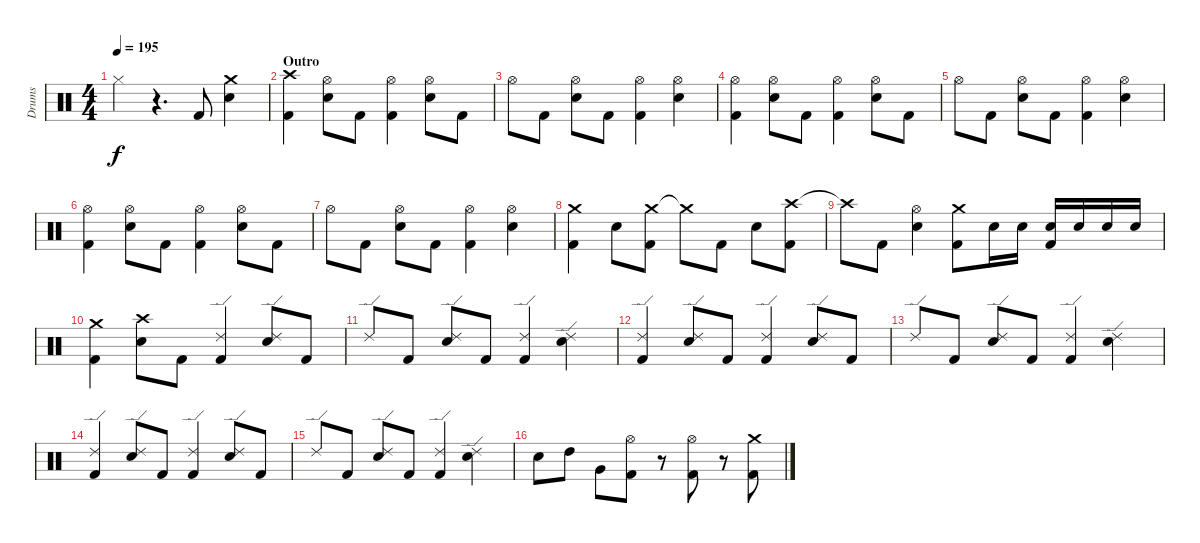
\track ("Drums" "Drums") {instrument percussion}
\staff {score}
\articulation defaults
\ts (4 4)
\tempo 195
\clef neutral
\ks c "Hi-Hat (closed)".4{dy f}
r.4{d} "Kick (hit) 2".8 ("Crash medium (hit)" "Snare (hit) 2").4 |
\section ("" "Outro")
("Crash high (hit)" "Kick (hit) 2").4 ("Hi-Hat (open)" "Snare (hit) 2").8 "Kick (hit) 2".8 ("Hi-Hat (open)" "Kick (hit) 2").4 ("Hi-Hat (open)" "Snare (hit) 2").8 "Kick (hit) 2".8 |
"Hi-Hat (open)".8 "Kick (hit) 2".8 ("Hi-Hat (open)" "Snare (hit) 2").8 "Kick (hit) 2".8 ("Hi-Hat (open)" "Kick (hit) 2").4 ("Hi-Hat (open)" "Snare (hit) 2").4 |
("Hi-Hat (open)" "Kick (hit) 2").4 ("Hi-Hat (open)" "Snare (hit) 2").8 "Kick (hit) 2".8 ("Hi-Hat (open)" "Kick (hit) 2").4 ("Hi-Hat (open)" "Snare (hit) 2").8 "Kick (hit) 2".8 |
"Hi-Hat (open)".8 "Kick (hit) 2".8 ("Hi-Hat (open)" "Snare (hit) 2").8 "Kick (hit) 2".8 ("Hi-Hat (open)" "Kick (hit) 2").4 ("Hi-Hat (open)" "Snare (hit) 2").4 |
("Hi-Hat (open)" "Kick (hit) 2").4 ("Hi-Hat (open)" "Snare (hit) 2").8 "Kick (hit) 2".8 ("Hi-Hat (open)" "Kick (hit) 2").4 ("Hi-Hat (open)" "Snare (hit) 2").8 "Kick (hit) 2".8 |
"Hi-Hat (open)".8 "Kick (hit) 2".8 ("Hi-Hat (open)" "Snare (hit) 2").8 "Kick (hit) 2".8 ("Hi-Hat (open)" "Kick (hit) 2").4 ("Hi-Hat (open)" "Snare (hit) 2").4 |
("Crash medium (hit)" "Kick (hit) 2").4 "Snare (hit) 2".8 ("Crash medium (hit)" "Kick (hit) 2").8 "Crash medium (hit)"{t}.8 "Kick (hit) 2".8 "Snare (hit) 2".8 ("Crash high (hit)" "Kick (hit) 2").8 |
"Crash high (hit)"{t}.8 "Kick (hit) 2".8 ("Hi-Hat (open)" "Snare (hit) 2").4 ("Crash medium (hit)" "Kick (hit) 2").8 "Snare (hit) 2".16 "Snare (hit) 2".16 ("Snare (hit) 2" "Kick (hit) 2").16 "Snare (hit) 2".16 "Snare (hit) 2".16 "Snare (hit) 2".16 |
("Crash medium (hit)" "Kick (hit) 2").4 ("Crash high (hit)" "Snare (hit) 2").8 "Kick (hit) 2".8 ("Ride (edge) 2" "Kick (hit) 2").4 ("Ride (edge) 2" "Snare (hit) 2").8 "Kick (hit) 2".8 |
"Ride (edge) 2".8 "Kick (hit) 2".8 ("Ride (edge) 2" "Snare (hit) 2").8 "Kick (hit) 2".8 ("Ride (edge) 2" "Kick (hit) 2").4 ("Ride (edge) 2" "Snare (hit) 2").4 |
("Ride (edge) 2" "Kick (hit) 2").4 ("Ride (edge) 2" "Snare (hit) 2").8 "Kick (hit) 2".8 ("Ride (edge) 2" "Kick (hit) 2").4 ("Ride (edge) 2" "Snare (hit) 2").8 "Kick (hit) 2".8 |
"Ride (edge) 2".8 "Kick (hit) 2".8 ("Ride (edge) 2" "Snare (hit) 2").8 "Kick (hit) 2".8 ("Ride (edge) 2" "Kick (hit) 2").4 ("Ride (edge) 2" "Snare (hit) 2").4 |
("Ride (edge) 2" "Kick (hit) 2").4 ("Ride (edge) 2" "Snare (hit) 2").8 "Kick (hit) 2".8 ("Ride (edge) 2" "Kick (hit) 2").4 ("Ride (edge) 2" "Snare (hit) 2").8 "Kick (hit) 2".8 |
"Ride (edge) 2".8 "Kick (hit) 2".8 ("Ride (edge) 2" "Snare (hit) 2").8 "Kick (hit) 2".8 ("Ride (edge) 2" "Kick (hit) 2").4 ("Ride (edge) 2" "Snare (hit) 2").4 |
"Snare (hit) 2".8 "High Tom (hit)".8 "Very Low Tom (hit)".8 ("Hi-Hat (open)" "Kick (hit) 2").8 r.8 ("Hi-Hat (open)" "Kick (hit) 2").8 r.8 ("Crash medium (hit)" "Kick (hit) 2").8
